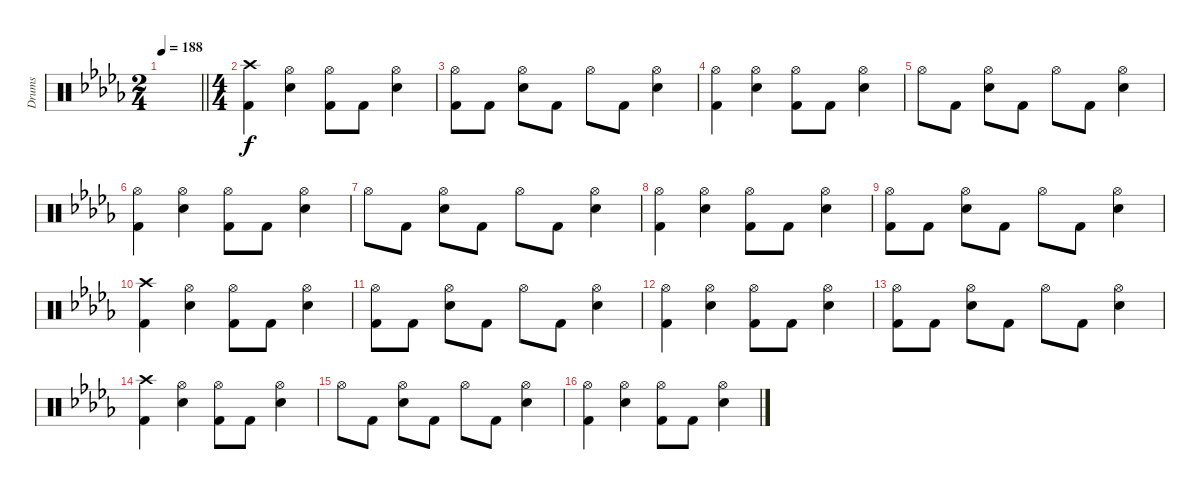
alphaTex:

\track ("Drums" "Drums") {instrument percussion}
\staff {score}
\articulation defaults
\ts (2 4)
\tempo 188
\clef neutral
\barLineRight lightlight
\ks bbminor
|
\ts (4 4)
("Crash high (hit)" "Kick (hit) 2").4 ("Hi-Hat (open)" "Electric Snare (hit)").4 ("Hi-Hat (open)" "Kick (hit) 2").8 "Kick (hit) 2".8 ("Hi-Hat (open)" "Electric Snare (hit)").4 |
("Hi-Hat (open)" "Kick (hit) 2").8 "Kick (hit) 2".8 ("Hi-Hat (open)" "Electric Snare (hit)").8 "Kick (hit) 2".8 "Hi-Hat (open)".8 "Kick (hit) 2".8 ("Hi-Hat (open)" "Electric Snare (hit)").4 |
("Hi-Hat (open)" "Kick (hit) 2").4 ("Hi-Hat (open)" "Electric Snare (hit)").4 ("Hi-Hat (open)" "Kick (hit) 2").8 "Kick (hit) 2".8 ("Hi-Hat (open)" "Electric Snare (hit)").4 |
"Hi-Hat (open)".8 "Kick (hit) 2".8 ("Hi-Hat (open)" "Electric Snare (hit)").8 "Kick (hit) 2".8 "Hi-Hat (open)".8 "Kick (hit) 2".8 ("Hi-Hat (open)" "Electric Snare (hit)").4 |
("Hi-Hat (open)" "Kick (hit) 2").4 ("Hi-Hat (open)" "Electric Snare (hit)").4 ("Hi-Hat (open)" "Kick (hit) 2").8 "Kick (hit) 2".8 ("Hi-Hat (open)" "Electric Snare (hit)").4 |
"Hi-Hat (open)".8 "Kick (hit) 2".8 ("Hi-Hat (open)" "Electric Snare (hit)").8 "Kick (hit) 2".8 "Hi-Hat (open)".8 "Kick (hit) 2".8 ("Hi-Hat (open)" "Electric Snare (hit)").4 |
("Hi-Hat (open)" "Kick (hit) 2").4 ("Hi-Hat (open)" "Electric Snare (hit)").4 ("Hi-Hat (open)" "Kick (hit) 2").8 "Kick (hit) 2".8 ("Hi-Hat (open)" "Electric Snare (hit)").4 |
("Hi-Hat (open)" "Kick (hit) 2").8 "Kick (hit) 2".8 ("Hi-Hat (open)" "Electric Snare (hit)").8 "Kick (hit) 2".8 "Hi-Hat (open)".8 "Kick (hit) 2".8 ("Hi-Hat (open)" "Electric Snare (hit)").4 |
("Crash high (hit)" "Kick (hit) 2").4 ("Hi-Hat (open)" "Electric Snare (hit)").4 ("Hi-Hat (open)" "Kick (hit) 2").8 "Kick (hit) 2".8 ("Hi-Hat (open)" "Electric Snare (hit)").4 |
("Hi-Hat (open)" "Kick (hit) 2").8 "Kick (hit) 2".8 ("Hi-Hat (open)" "Electric Snare (hit)").8 "Kick (hit) 2".8 "Hi-Hat (open)".8 "Kick (hit) 2".8 ("Hi-Hat (open)" "Electric Snare (hit)").4 |
("Hi-Hat (open)" "Kick (hit) 2").4 ("Hi-Hat (open)" "Electric Snare (hit)").4 ("Hi-Hat (open)" "Kick (hit) 2").8 "Kick (hit) 2".8 ("Hi-Hat (open)" "Electric Snare (hit)").4 |
("Hi-Hat (open)" "Kick (hit) 2").8 "Kick (hit) 2".8 ("Hi-Hat (open)" "Electric Snare (hit)").8 "Kick (hit) 2".8 "Hi-Hat (open)".8 "Kick (hit) 2".8 ("Hi-Hat (open)" "Electric Snare (hit)").4 |
("Crash high (hit)" "Kick (hit) 2").4 ("Hi-Hat (open)" "Electric Snare (hit)").4 ("Hi-Hat (open)" "Kick (hit) 2").8 "Kick (hit) 2".8 ("Hi-Hat (open)" "Electric Snare (hit)").4 |
"Hi-Hat (open)".8 "Kick (hit) 2".8 ("Hi-Hat (open)" "Electric Snare (hit)").8 "Kick (hit) 2".8 "Hi-Hat (open)".8 "Kick (hit) 2".8 ("Hi-Hat (open)" "Electric Snare (hit)").4 |
("Hi-Hat (open)" "Kick (hit) 2").4 ("Hi-Hat (open)" "Electric Snare (hit)").4 ("Hi-Hat (open)" "Kick (hit) 2").8 "Kick (hit) 2".8 ("Hi-Hat (open)" "Electric Snare (hit)").4
